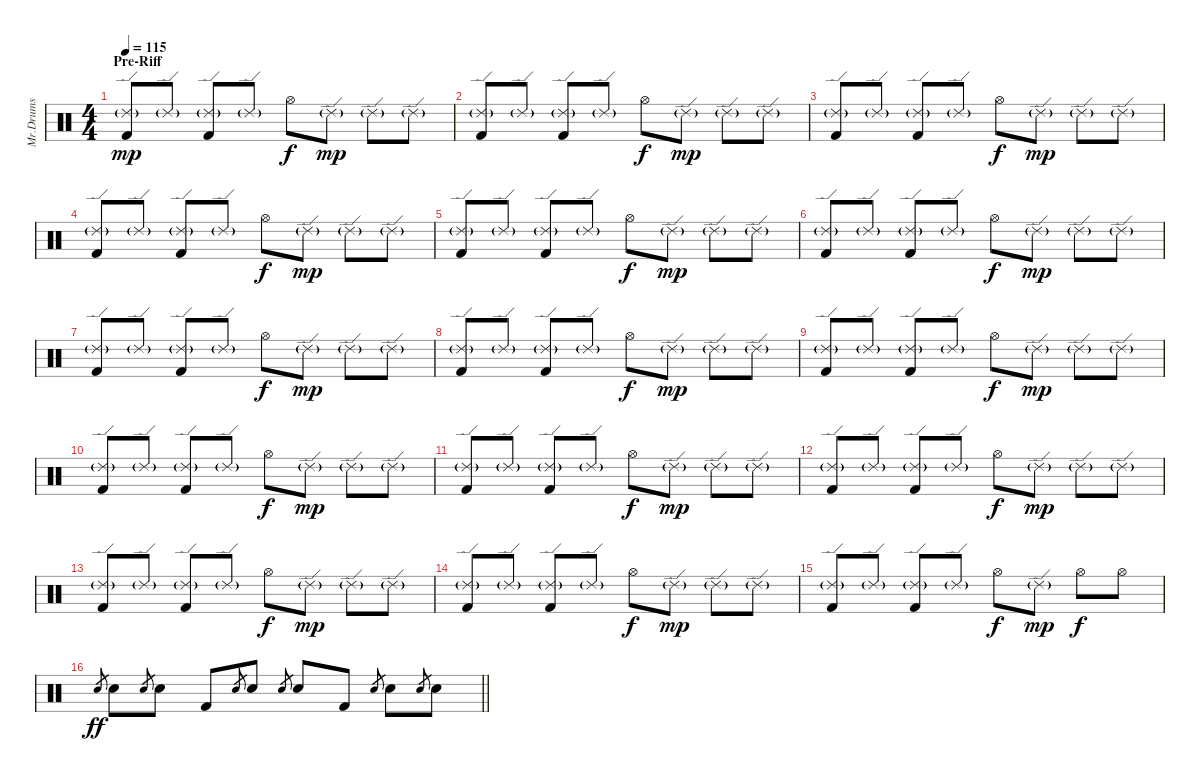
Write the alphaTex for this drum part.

\track ("Mr.Drums" "Mr.Drums") {instrument percussion}
\staff {score}
\articulation defaults
\ts (4 4)
\section ("" "Pre-Riff")
\tempo 115
\clef neutral
\ks c
("Ride (edge) 2"{g} "Kick (hit) 2").8{dy mp} "Ride (edge) 2"{g}.8 ("Ride (edge) 2"{g} "Kick (hit) 2").8 "Ride (edge) 2"{g}.8 "Hi-Hat (open)".8{dy f} "Ride (edge) 2"{g}.8{dy mp} "Ride (edge) 2"{g}.8 "Ride (edge) 2"{g}.8 |
("Ride (edge) 2"{g} "Kick (hit) 2").8 "Ride (edge) 2"{g}.8 ("Ride (edge) 2"{g} "Kick (hit) 2").8 "Ride (edge) 2"{g}.8 "Hi-Hat (open)".8{dy f} "Ride (edge) 2"{g}.8{dy mp} "Ride (edge) 2"{g}.8 "Ride (edge) 2"{g}.8 |
("Ride (edge) 2"{g} "Kick (hit) 2").8 "Ride (edge) 2"{g}.8 ("Ride (edge) 2"{g} "Kick (hit) 2").8 "Ride (edge) 2"{g}.8 "Hi-Hat (open)".8{dy f} "Ride (edge) 2"{g}.8{dy mp} "Ride (edge) 2"{g}.8 "Ride (edge) 2"{g}.8 |
("Ride (edge) 2"{g} "Kick (hit) 2").8 "Ride (edge) 2"{g}.8 ("Ride (edge) 2"{g} "Kick (hit) 2").8 "Ride (edge) 2"{g}.8 "Hi-Hat (open)".8{dy f} "Ride (edge) 2"{g}.8{dy mp} "Ride (edge) 2"{g}.8 "Ride (edge) 2"{g}.8 |
("Ride (edge) 2"{g} "Kick (hit) 2").8 "Ride (edge) 2"{g}.8 ("Ride (edge) 2"{g} "Kick (hit) 2").8 "Ride (edge) 2"{g}.8 "Hi-Hat (open)".8{dy f} "Ride (edge) 2"{g}.8{dy mp} "Ride (edge) 2"{g}.8 "Ride (edge) 2"{g}.8 |
("Ride (edge) 2"{g} "Kick (hit) 2").8 "Ride (edge) 2"{g}.8 ("Ride (edge) 2"{g} "Kick (hit) 2").8 "Ride (edge) 2"{g}.8 "Hi-Hat (open)".8{dy f} "Ride (edge) 2"{g}.8{dy mp} "Ride (edge) 2"{g}.8 "Ride (edge) 2"{g}.8 |
("Ride (edge) 2"{g} "Kick (hit) 2").8 "Ride (edge) 2"{g}.8 ("Ride (edge) 2"{g} "Kick (hit) 2").8 "Ride (edge) 2"{g}.8 "Hi-Hat (open)".8{dy f} "Ride (edge) 2"{g}.8{dy mp} "Ride (edge) 2"{g}.8 "Ride (edge) 2"{g}.8 |
("Ride (edge) 2"{g} "Kick (hit) 2").8 "Ride (edge) 2"{g}.8 ("Ride (edge) 2"{g} "Kick (hit) 2").8 "Ride (edge) 2"{g}.8 "Hi-Hat (open)".8{dy f} "Ride (edge) 2"{g}.8{dy mp} "Ride (edge) 2"{g}.8 "Ride (edge) 2"{g}.8 |
("Ride (edge) 2"{g} "Kick (hit) 2").8 "Ride (edge) 2"{g}.8 ("Ride (edge) 2"{g} "Kick (hit) 2").8 "Ride (edge) 2"{g}.8 "Hi-Hat (open)".8{dy f} "Ride (edge) 2"{g}.8{dy mp} "Ride (edge) 2"{g}.8 "Ride (edge) 2"{g}.8 |
("Ride (edge) 2"{g} "Kick (hit) 2").8 "Ride (edge) 2"{g}.8 ("Ride (edge) 2"{g} "Kick (hit) 2").8 "Ride (edge) 2"{g}.8 "Hi-Hat (open)".8{dy f} "Ride (edge) 2"{g}.8{dy mp} "Ride (edge) 2"{g}.8 "Ride (edge) 2"{g}.8 |
("Ride (edge) 2"{g} "Kick (hit) 2").8 "Ride (edge) 2"{g}.8 ("Ride (edge) 2"{g} "Kick (hit) 2").8 "Ride (edge) 2"{g}.8 "Hi-Hat (open)".8{dy f} "Ride (edge) 2"{g}.8{dy mp} "Ride (edge) 2"{g}.8 "Ride (edge) 2"{g}.8 |
("Ride (edge) 2"{g} "Kick (hit) 2").8 "Ride (edge) 2"{g}.8 ("Ride (edge) 2"{g} "Kick (hit) 2").8 "Ride (edge) 2"{g}.8 "Hi-Hat (open)".8{dy f} "Ride (edge) 2"{g}.8{dy mp} "Ride (edge) 2"{g}.8 "Ride (edge) 2"{g}.8 |
("Ride (edge) 2"{g} "Kick (hit) 2").8 "Ride (edge) 2"{g}.8 ("Ride (edge) 2"{g} "Kick (hit) 2").8 "Ride (edge) 2"{g}.8 "Hi-Hat (open)".8{dy f} "Ride (edge) 2"{g}.8{dy mp} "Ride (edge) 2"{g}.8 "Ride (edge) 2"{g}.8 |
("Ride (edge) 2"{g} "Kick (hit) 2").8 "Ride (edge) 2"{g}.8 ("Ride (edge) 2"{g} "Kick (hit) 2").8 "Ride (edge) 2"{g}.8 "Hi-Hat (open)".8{dy f} "Ride (edge) 2"{g}.8{dy mp} "Ride (edge) 2"{g}.8 "Ride (edge) 2"{g}.8 |
("Ride (edge) 2"{g} "Kick (hit) 2").8 "Ride (edge) 2"{g}.8 ("Ride (edge) 2"{g} "Kick (hit) 2").8 "Ride (edge) 2"{g}.8 "Hi-Hat (open)".8{dy f} "Ride (edge) 2"{g}.8{dy mp} "Hi-Hat (open)".8{dy f} "Hi-Hat (open)".8 |
\barLineRight lightlight "Electric Snare (hit)".8{gr dy ff} "Electric Snare (hit)".8 "Electric Snare (hit)".8{gr} "Electric Snare (hit)".8 "Kick (hit) 2".8 "Electric Snare (hit)".8{gr} "Electric Snare (hit)".8 "Electric Snare (hit)".8{gr} "Electric Snare (hit)".8 "Kick (hit) 2".8 "Electric Snare (hit)".8{gr} "Electric Snare (hit)".8 "Electric Snare (hit)".8{gr} "Electric Snare (hit)".8
